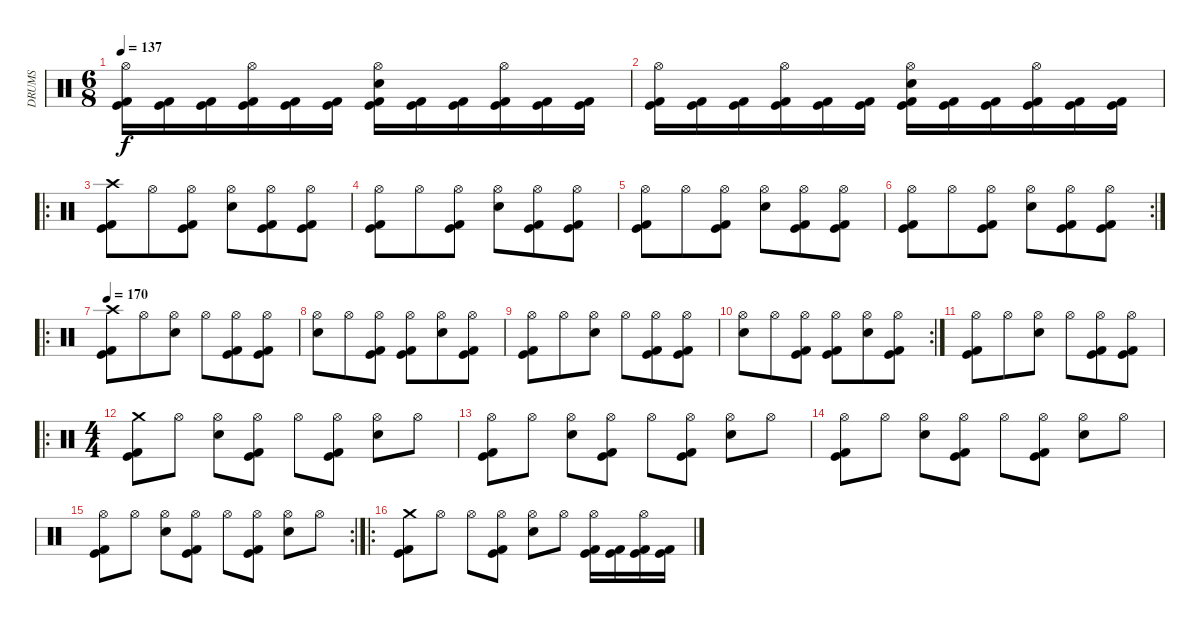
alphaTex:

\track ("DRUMS" "DRUMS") {instrument percussion}
\staff {score}
\articulation defaults
\ts (6 8)
\tempo 137
\clef neutral
\ks c
("Hi-Hat (open)" "Kick (hit)" "Kick (hit) 2").16{dy f} ("Kick (hit)" "Kick (hit) 2").16 ("Kick (hit)" "Kick (hit) 2").16 ("Hi-Hat (open)" "Kick (hit)" "Kick (hit) 2").16 ("Kick (hit)" "Kick (hit) 2").16 ("Kick (hit)" "Kick (hit) 2").16 ("Hi-Hat (open)" "Snare (hit) 2" "Kick (hit)" "Kick (hit) 2").16 ("Kick (hit)" "Kick (hit) 2").16 ("Kick (hit)" "Kick (hit) 2").16 ("Hi-Hat (open)" "Kick (hit)" "Kick (hit) 2").16 ("Kick (hit)" "Kick (hit) 2").16 ("Kick (hit)" "Kick (hit) 2").16 |
("Hi-Hat (open)" "Kick (hit)" "Kick (hit) 2").16 ("Kick (hit)" "Kick (hit) 2").16 ("Kick (hit)" "Kick (hit) 2").16 ("Hi-Hat (open)" "Kick (hit)" "Kick (hit) 2").16 ("Kick (hit)" "Kick (hit) 2").16 ("Kick (hit)" "Kick (hit) 2").16 ("Hi-Hat (open)" "Snare (hit) 2" "Kick (hit)" "Kick (hit) 2").16 ("Kick (hit)" "Kick (hit) 2").16 ("Kick (hit)" "Kick (hit) 2").16 ("Hi-Hat (open)" "Kick (hit)" "Kick (hit) 2").16 ("Kick (hit)" "Kick (hit) 2").16 ("Kick (hit)" "Kick (hit) 2").16 |
\ro
("Crash high (hit)" "Kick (hit)" "Kick (hit) 2").8 "Hi-Hat (open)".8 ("Hi-Hat (open)" "Kick (hit)" "Kick (hit) 2").8 ("Hi-Hat (open)" "Snare (hit) 2").8 ("Hi-Hat (open)" "Kick (hit)" "Kick (hit) 2").8 ("Hi-Hat (open)" "Kick (hit)" "Kick (hit) 2").8 |
("Hi-Hat (open)" "Kick (hit)" "Kick (hit) 2").8 "Hi-Hat (open)".8 ("Hi-Hat (open)" "Kick (hit)" "Kick (hit) 2").8 ("Hi-Hat (open)" "Snare (hit) 2").8 ("Hi-Hat (open)" "Kick (hit)" "Kick (hit) 2").8 ("Hi-Hat (open)" "Kick (hit)" "Kick (hit) 2").8 |
("Hi-Hat (open)" "Kick (hit)" "Kick (hit) 2").8 "Hi-Hat (open)".8 ("Hi-Hat (open)" "Kick (hit)" "Kick (hit) 2").8 ("Hi-Hat (open)" "Snare (hit) 2").8 ("Hi-Hat (open)" "Kick (hit)" "Kick (hit) 2").8 ("Hi-Hat (open)" "Kick (hit)" "Kick (hit) 2").8 |
\rc 2
("Hi-Hat (open)" "Kick (hit)" "Kick (hit) 2").8 "Hi-Hat (open)".8 ("Hi-Hat (open)" "Kick (hit)" "Kick (hit) 2").8 ("Hi-Hat (open)" "Snare (hit) 2").8 ("Hi-Hat (open)" "Kick (hit)" "Kick (hit) 2").8 ("Hi-Hat (open)" "Kick (hit)" "Kick (hit) 2").8 |
\ro
\tempo 170
("Crash high (hit)" "Kick (hit)" "Kick (hit) 2").8 "Hi-Hat (open)".8 ("Hi-Hat (open)" "Snare (hit) 2").8 "Hi-Hat (open)".8 ("Hi-Hat (open)" "Kick (hit)" "Kick (hit) 2").8 ("Hi-Hat (open)" "Kick (hit)" "Kick (hit) 2").8 |
("Hi-Hat (open)" "Snare (hit) 2").8 "Hi-Hat (open)".8 ("Hi-Hat (open)" "Kick (hit)" "Kick (hit) 2").8 ("Hi-Hat (open)" "Kick (hit)" "Kick (hit) 2").8 ("Hi-Hat (open)" "Snare (hit) 2").8 ("Hi-Hat (open)" "Kick (hit)" "Kick (hit) 2").8 |
("Hi-Hat (open)" "Kick (hit)" "Kick (hit) 2").8 "Hi-Hat (open)".8 ("Hi-Hat (open)" "Snare (hit) 2").8 "Hi-Hat (open)".8 ("Hi-Hat (open)" "Kick (hit)" "Kick (hit) 2").8 ("Hi-Hat (open)" "Kick (hit)" "Kick (hit) 2").8 |
\rc 2
("Hi-Hat (open)" "Snare (hit) 2").8 "Hi-Hat (open)".8 ("Hi-Hat (open)" "Kick (hit)" "Kick (hit) 2").8 ("Hi-Hat (open)" "Kick (hit)" "Kick (hit) 2").8 ("Hi-Hat (open)" "Snare (hit) 2").8 ("Hi-Hat (open)" "Kick (hit)" "Kick (hit) 2").8 |
("Hi-Hat (open)" "Kick (hit)" "Kick (hit) 2").8 "Hi-Hat (open)".8 ("Hi-Hat (open)" "Snare (hit) 2").8 "Hi-Hat (open)".8 ("Hi-Hat (open)" "Kick (hit)" "Kick (hit) 2").8 ("Hi-Hat (open)" "Kick (hit)" "Kick (hit) 2").8 |
\ro
\ts (4 4)
("Crash medium (hit)" "Kick (hit)" "Kick (hit) 2").8 "Hi-Hat (open)".8 ("Hi-Hat (open)" "Snare (hit) 2").8 ("Hi-Hat (open)" "Kick (hit)" "Kick (hit) 2").8 "Hi-Hat (open)".8 ("Hi-Hat (open)" "Kick (hit)" "Kick (hit) 2").8 ("Hi-Hat (open)" "Snare (hit) 2").8 "Hi-Hat (open)".8 |
("Hi-Hat (open)" "Kick (hit)" "Kick (hit) 2").8 "Hi-Hat (open)".8 ("Hi-Hat (open)" "Snare (hit) 2").8 ("Hi-Hat (open)" "Kick (hit)" "Kick (hit) 2").8 "Hi-Hat (open)".8 ("Hi-Hat (open)" "Kick (hit)" "Kick (hit) 2").8 ("Hi-Hat (open)" "Snare (hit) 2").8 "Hi-Hat (open)".8 |
("Hi-Hat (open)" "Kick (hit)" "Kick (hit) 2").8 "Hi-Hat (open)".8 ("Hi-Hat (open)" "Snare (hit) 2").8 ("Hi-Hat (open)" "Kick (hit)" "Kick (hit) 2").8 "Hi-Hat (open)".8 ("Hi-Hat (open)" "Kick (hit)" "Kick (hit) 2").8 ("Hi-Hat (open)" "Snare (hit) 2").8 "Hi-Hat (open)".8 |
\rc 2
("Hi-Hat (open)" "Kick (hit)" "Kick (hit) 2").8 "Hi-Hat (open)".8 ("Hi-Hat (open)" "Snare (hit) 2").8 ("Hi-Hat (open)" "Kick (hit)" "Kick (hit) 2").8 "Hi-Hat (open)".8 ("Hi-Hat (open)" "Kick (hit)" "Kick (hit) 2").8 ("Hi-Hat (open)" "Snare (hit) 2").8 "Hi-Hat (open)".8 |
\ro
("Crash medium (hit)" "Kick (hit)" "Kick (hit) 2").8 "Hi-Hat (open)".8 "Hi-Hat (open)".8 ("Hi-Hat (open)" "Kick (hit)" "Kick (hit) 2").8 ("Hi-Hat (open)" "Snare (hit) 2").8 "Hi-Hat (open)".8 ("Hi-Hat (open)" "Kick (hit)" "Kick (hit) 2").16 ("Kick (hit)" "Kick (hit) 2").16 ("Hi-Hat (open)" "Kick (hit)" "Kick (hit) 2").16 ("Kick (hit)" "Kick (hit) 2").16
